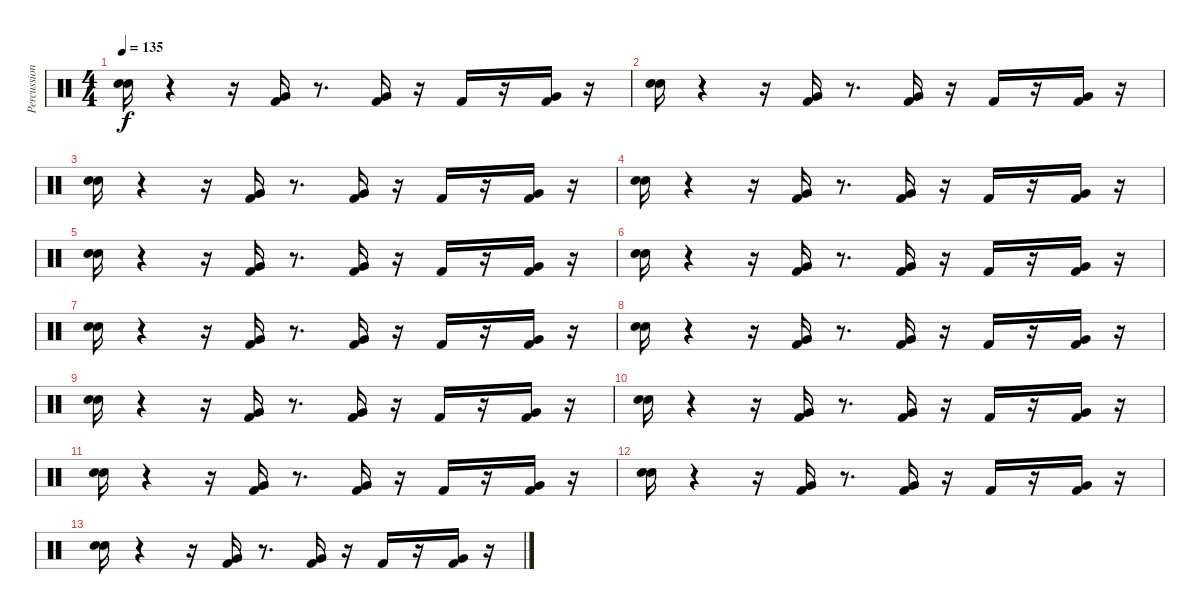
\track ("Percussion" "Percussion") {instrument percussion}
\staff {score}
\articulation defaults
\ts (4 4)
\tempo 135
\clef neutral
\ks c
("Snare (hit) 2" "Electric Snare (hit)").16{dy f} r.4 r.16 ("Kick (hit) 2" "Very Low Tom (hit)").16 r.8{d} ("Kick (hit) 2" "Very Low Tom (hit)").16 r.16 "Kick (hit) 2".16 r.16 ("Kick (hit) 2" "Very Low Tom (hit)").16 r.16 |
("Snare (hit) 2" "Electric Snare (hit)").16 r.4 r.16 ("Kick (hit) 2" "Very Low Tom (hit)").16 r.8{d} ("Kick (hit) 2" "Very Low Tom (hit)").16 r.16 "Kick (hit) 2".16 r.16 ("Kick (hit) 2" "Very Low Tom (hit)").16 r.16 |
("Snare (hit) 2" "Electric Snare (hit)").16 r.4 r.16 ("Kick (hit) 2" "Very Low Tom (hit)").16 r.8{d} ("Kick (hit) 2" "Very Low Tom (hit)").16 r.16 "Kick (hit) 2".16 r.16 ("Kick (hit) 2" "Very Low Tom (hit)").16 r.16 |
("Snare (hit) 2" "Electric Snare (hit)").16 r.4 r.16 ("Kick (hit) 2" "Very Low Tom (hit)").16 r.8{d} ("Kick (hit) 2" "Very Low Tom (hit)").16 r.16 "Kick (hit) 2".16 r.16 ("Kick (hit) 2" "Very Low Tom (hit)").16 r.16 |
("Snare (hit) 2" "Electric Snare (hit)").16 r.4 r.16 ("Kick (hit) 2" "Very Low Tom (hit)").16 r.8{d} ("Kick (hit) 2" "Very Low Tom (hit)").16 r.16 "Kick (hit) 2".16 r.16 ("Kick (hit) 2" "Very Low Tom (hit)").16 r.16 |
("Snare (hit) 2" "Electric Snare (hit)").16 r.4 r.16 ("Kick (hit) 2" "Very Low Tom (hit)").16 r.8{d} ("Kick (hit) 2" "Very Low Tom (hit)").16 r.16 "Kick (hit) 2".16 r.16 ("Kick (hit) 2" "Very Low Tom (hit)").16 r.16 |
("Snare (hit) 2" "Electric Snare (hit)").16 r.4 r.16 ("Kick (hit) 2" "Very Low Tom (hit)").16 r.8{d} ("Kick (hit) 2" "Very Low Tom (hit)").16 r.16 "Kick (hit) 2".16 r.16 ("Kick (hit) 2" "Very Low Tom (hit)").16 r.16 |
("Snare (hit) 2" "Electric Snare (hit)").16 r.4 r.16 ("Kick (hit) 2" "Very Low Tom (hit)").16 r.8{d} ("Kick (hit) 2" "Very Low Tom (hit)").16 r.16 "Kick (hit) 2".16 r.16 ("Kick (hit) 2" "Very Low Tom (hit)").16 r.16 |
("Snare (hit) 2" "Electric Snare (hit)").16 r.4 r.16 ("Kick (hit) 2" "Very Low Tom (hit)").16 r.8{d} ("Kick (hit) 2" "Very Low Tom (hit)").16 r.16 "Kick (hit) 2".16 r.16 ("Kick (hit) 2" "Very Low Tom (hit)").16 r.16 |
("Snare (hit) 2" "Electric Snare (hit)").16 r.4 r.16 ("Kick (hit) 2" "Very Low Tom (hit)").16 r.8{d} ("Kick (hit) 2" "Very Low Tom (hit)").16 r.16 "Kick (hit) 2".16 r.16 ("Kick (hit) 2" "Very Low Tom (hit)").16 r.16 |
("Snare (hit) 2" "Electric Snare (hit)").16 r.4 r.16 ("Kick (hit) 2" "Very Low Tom (hit)").16 r.8{d} ("Kick (hit) 2" "Very Low Tom (hit)").16 r.16 "Kick (hit) 2".16 r.16 ("Kick (hit) 2" "Very Low Tom (hit)").16 r.16 |
("Snare (hit) 2" "Electric Snare (hit)").16 r.4 r.16 ("Kick (hit) 2" "Very Low Tom (hit)").16 r.8{d} ("Kick (hit) 2" "Very Low Tom (hit)").16 r.16 "Kick (hit) 2".16 r.16 ("Kick (hit) 2" "Very Low Tom (hit)").16 r.16 |
("Snare (hit) 2" "Electric Snare (hit)").16 r.4 r.16 ("Kick (hit) 2" "Very Low Tom (hit)").16 r.8{d} ("Kick (hit) 2" "Very Low Tom (hit)").16 r.16 "Kick (hit) 2".16 r.16 ("Kick (hit) 2" "Very Low Tom (hit)").16 r.16
